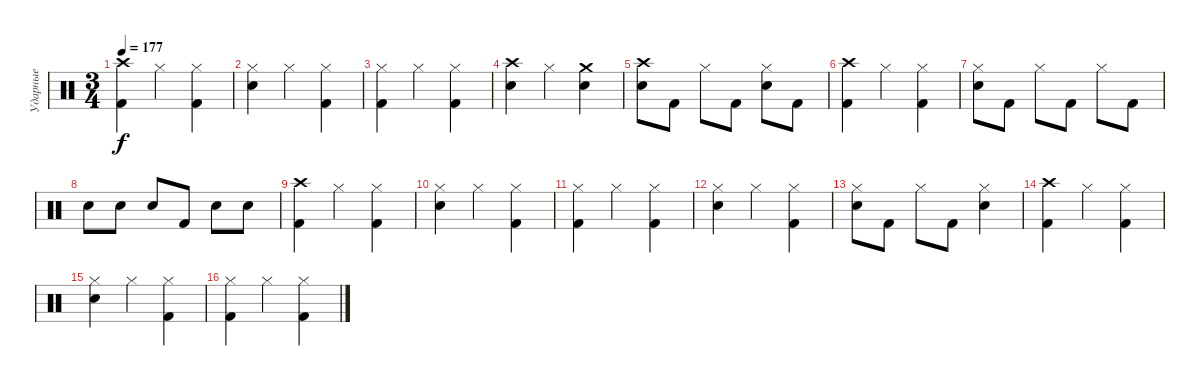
\track ("Ударные" "Ударные") {instrument percussion}
\staff {score}
\articulation defaults
\ts (3 4)
\tempo 177
\clef neutral
\ks c
("Crash high (hit)" "Kick (hit) 2").4{dy f} "Hi-Hat (closed)".4 ("Hi-Hat (closed)" "Kick (hit) 2").4 |
("Hi-Hat (closed)" "Snare (hit) 2").4 "Hi-Hat (closed)".4 ("Hi-Hat (closed)" "Kick (hit) 2").4 |
("Hi-Hat (closed)" "Kick (hit) 2").4 "Hi-Hat (closed)".4 ("Hi-Hat (closed)" "Kick (hit) 2").4 |
("Crash high (hit)" "Snare (hit) 2").4 "Hi-Hat (closed)".4 ("Crash medium (hit)" "Snare (hit) 2").4 |
("Crash high (hit)" "Snare (hit) 2").8 "Kick (hit) 2".8 "Hi-Hat (closed)".8 "Kick (hit) 2".8 ("Hi-Hat (closed)" "Snare (hit) 2").8 "Kick (hit) 2".8 |
("Crash high (hit)" "Kick (hit) 2").4 "Hi-Hat (closed)".4 ("Hi-Hat (closed)" "Kick (hit) 2").4 |
("Hi-Hat (closed)" "Snare (hit) 2").8 "Kick (hit) 2".8 "Hi-Hat (closed)".8 "Kick (hit) 2".8 "Hi-Hat (closed)".8 "Kick (hit) 2".8 |
"Snare (hit) 2".8 "Snare (hit) 2".8 "Snare (hit) 2".8 "Kick (hit) 2".8 "Snare (hit) 2".8 "Snare (hit) 2".8 |
("Crash high (hit)" "Kick (hit) 2").4 "Hi-Hat (closed)".4 ("Hi-Hat (closed)" "Kick (hit) 2").4 |
("Hi-Hat (closed)" "Snare (hit) 2").4 "Hi-Hat (closed)".4 ("Hi-Hat (closed)" "Kick (hit) 2").4 |
("Hi-Hat (closed)" "Kick (hit) 2").4 "Hi-Hat (closed)".4 ("Hi-Hat (closed)" "Kick (hit) 2").4 |
("Hi-Hat (closed)" "Snare (hit) 2").4 "Hi-Hat (closed)".4 ("Hi-Hat (closed)" "Kick (hit) 2").4 |
("Hi-Hat (closed)" "Snare (hit) 2").8 "Kick (hit) 2".8 "Hi-Hat (closed)".8 "Kick (hit) 2".8 ("Hi-Hat (closed)" "Snare (hit) 2").4 |
("Crash high (hit)" "Kick (hit) 2").4 "Hi-Hat (closed)".4 ("Hi-Hat (closed)" "Kick (hit) 2").4 |
("Hi-Hat (closed)" "Snare (hit) 2").4 "Hi-Hat (closed)".4 ("Hi-Hat (closed)" "Kick (hit) 2").4 |
("Hi-Hat (closed)" "Kick (hit) 2").4 "Hi-Hat (closed)".4 ("Hi-Hat (closed)" "Kick (hit) 2").4
